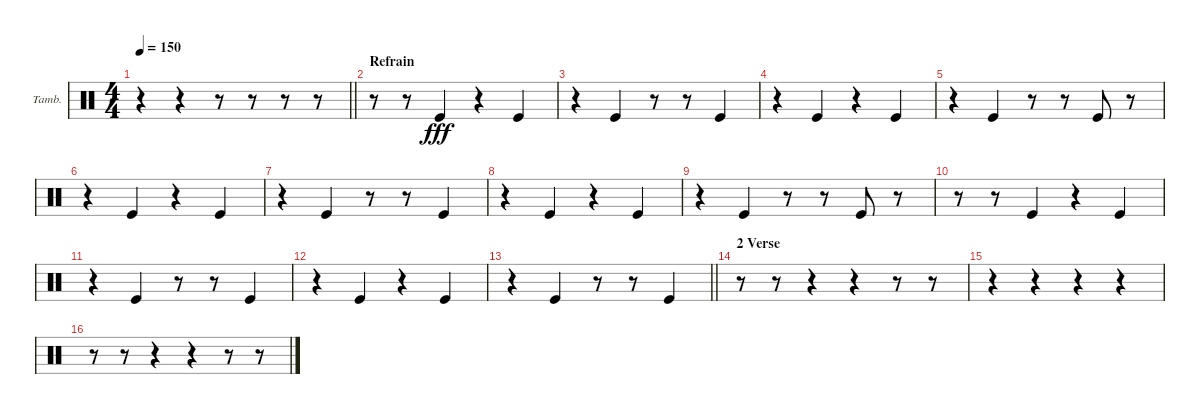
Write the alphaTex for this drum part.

\bracketExtendMode groupsimilarinstruments
\firstSystemTrackNameOrientation horizontal
\otherSystemsTrackNameOrientation horizontal
\track ("Tambourine" "Tamb.") {instrument percussion}
\staff {score}
\articulation defaults
\ts (4 4)
\tempo 150
\clef neutral
\barLineRight lightlight
\ks c
r.4{dy fff} r.4 r.8 r.8 r.8 r.8 |
\section ("" "Refrain")
r.8 r.8 "Kick (hit)".4 r.4 "Kick (hit)".4 |
r.4 "Kick (hit)".4 r.8 r.8 "Kick (hit)".4 |
r.4 "Kick (hit)".4 r.4 "Kick (hit)".4 |
r.4 "Kick (hit)".4 r.8 r.8 "Kick (hit)".8 r.8 |
r.4 "Kick (hit)".4 r.4 "Kick (hit)".4 |
r.4 "Kick (hit)".4 r.8 r.8 "Kick (hit)".4 |
r.4 "Kick (hit)".4 r.4 "Kick (hit)".4 |
r.4 "Kick (hit)".4 r.8 r.8 "Kick (hit)".8 r.8 |
r.8 r.8 "Kick (hit)".4 r.4 "Kick (hit)".4 |
r.4 "Kick (hit)".4 r.8 r.8 "Kick (hit)".4 |
r.4 "Kick (hit)".4 r.4 "Kick (hit)".4 |
\barLineRight lightlight
r.4 "Kick (hit)".4 r.8 r.8 "Kick (hit)".4 |
\section ("" "2 Verse")
r.8 r.8 r.4 r.4 r.8 r.8 |
r.4 r.4 r.4 r.4 |
r.8 r.8 r.4 r.4 r.8 r.8
